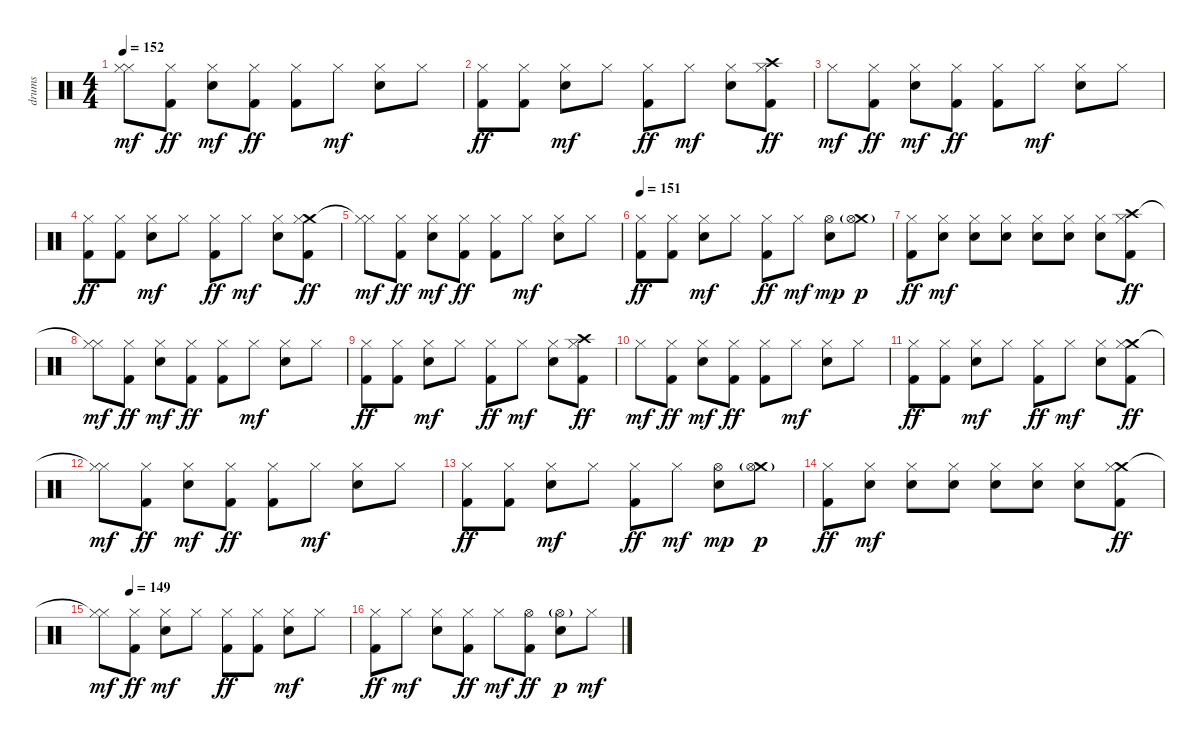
\track ("drums" "drums") {instrument percussion}
\staff {score}
\articulation defaults
\ts (4 4)
\tempo 152
\clef neutral
\ks c
("Hi-Hat (closed)"{t} "Hi-Hat (closed)").8{dy mf} ("Hi-Hat (closed)" "Kick (hit) 2").8{dy ff} ("Hi-Hat (closed)" "Electric Snare (hit)").8{dy mf} ("Hi-Hat (closed)" "Kick (hit) 2").8{dy ff} ("Hi-Hat (closed)" "Kick (hit) 2").8 "Hi-Hat (closed)".8{dy mf} ("Hi-Hat (closed)" "Electric Snare (hit)").8 "Hi-Hat (closed)".8 |
("Hi-Hat (closed)" "Kick (hit) 2").8{dy ff} ("Hi-Hat (closed)" "Kick (hit) 2").8 ("Hi-Hat (closed)" "Electric Snare (hit)").8{dy mf} "Hi-Hat (closed)".8 ("Hi-Hat (closed)" "Kick (hit) 2").8{dy ff} "Hi-Hat (closed)".8{dy mf} ("Hi-Hat (closed)" "Electric Snare (hit)").8 ("Crash high (hit)" "Hi-Hat (closed)" "Kick (hit) 2").8{dy ff} |
"Hi-Hat (closed)".8{dy mf} ("Hi-Hat (closed)" "Kick (hit) 2").8{dy ff} ("Hi-Hat (closed)" "Electric Snare (hit)").8{dy mf} ("Hi-Hat (closed)" "Kick (hit) 2").8{dy ff} ("Hi-Hat (closed)" "Kick (hit) 2").8 "Hi-Hat (closed)".8{dy mf} ("Hi-Hat (closed)" "Electric Snare (hit)").8 "Hi-Hat (closed)".8 |
("Hi-Hat (closed)" "Kick (hit) 2").8{dy ff} ("Hi-Hat (closed)" "Kick (hit) 2").8 ("Hi-Hat (closed)" "Electric Snare (hit)").8{dy mf} "Hi-Hat (closed)".8 ("Hi-Hat (closed)" "Kick (hit) 2").8{dy ff} "Hi-Hat (closed)".8{dy mf} ("Hi-Hat (closed)" "Electric Snare (hit)").8 ("Crash medium (hit)" "Hi-Hat (closed)" "Kick (hit) 2").8{dy ff} |
("Hi-Hat (closed)"{t} "Hi-Hat (closed)").8{dy mf} ("Hi-Hat (closed)" "Kick (hit) 2").8{dy ff} ("Hi-Hat (closed)" "Electric Snare (hit)").8{dy mf} ("Hi-Hat (closed)" "Kick (hit) 2").8{dy ff} ("Hi-Hat (closed)" "Kick (hit) 2").8 "Hi-Hat (closed)".8{dy mf} ("Hi-Hat (closed)" "Electric Snare (hit)").8 "Hi-Hat (closed)".8 |
\tempo 151
("Hi-Hat (closed)" "Kick (hit) 2").8{dy ff} ("Hi-Hat (closed)" "Kick (hit) 2").8 ("Hi-Hat (closed)" "Electric Snare (hit)").8{dy mf} "Hi-Hat (closed)".8 ("Hi-Hat (closed)" "Kick (hit) 2").8{dy ff} "Hi-Hat (closed)".8{dy mf} ("Hi-Hat (open)" "Electric Snare (hit)").8{dy mp} ("Crash medium (hit)" "Hi-Hat (open)"{g}).8{dy p} |
("Hi-Hat (closed)" "Kick (hit) 2").8{dy ff} ("Hi-Hat (closed)" "Electric Snare (hit)").8{dy mf} ("Hi-Hat (closed)" "Electric Snare (hit)").8 ("Hi-Hat (closed)" "Electric Snare (hit)").8 ("Hi-Hat (closed)" "Electric Snare (hit)").8 ("Hi-Hat (closed)" "Electric Snare (hit)").8 ("Hi-Hat (closed)" "Electric Snare (hit)").8 ("Crash high (hit)" "Hi-Hat (closed)" "Kick (hit) 2").8{dy ff} |
("Hi-Hat (closed)"{t} "Hi-Hat (closed)").8{dy mf} ("Hi-Hat (closed)" "Kick (hit) 2").8{dy ff} ("Hi-Hat (closed)" "Electric Snare (hit)").8{dy mf} ("Hi-Hat (closed)" "Kick (hit) 2").8{dy ff} ("Hi-Hat (closed)" "Kick (hit) 2").8 "Hi-Hat (closed)".8{dy mf} ("Hi-Hat (closed)" "Electric Snare (hit)").8 "Hi-Hat (closed)".8 |
("Hi-Hat (closed)" "Kick (hit) 2").8{dy ff} ("Hi-Hat (closed)" "Kick (hit) 2").8 ("Hi-Hat (closed)" "Electric Snare (hit)").8{dy mf} "Hi-Hat (closed)".8 ("Hi-Hat (closed)" "Kick (hit) 2").8{dy ff} "Hi-Hat (closed)".8{dy mf} ("Hi-Hat (closed)" "Electric Snare (hit)").8 ("Crash high (hit)" "Hi-Hat (closed)" "Kick (hit) 2").8{dy ff} |
"Hi-Hat (closed)".8{dy mf} ("Hi-Hat (closed)" "Kick (hit) 2").8{dy ff} ("Hi-Hat (closed)" "Electric Snare (hit)").8{dy mf} ("Hi-Hat (closed)" "Kick (hit) 2").8{dy ff} ("Hi-Hat (closed)" "Kick (hit) 2").8 "Hi-Hat (closed)".8{dy mf} ("Hi-Hat (closed)" "Electric Snare (hit)").8 "Hi-Hat (closed)".8 |
("Hi-Hat (closed)" "Kick (hit) 2").8{dy ff} ("Hi-Hat (closed)" "Kick (hit) 2").8 ("Hi-Hat (closed)" "Electric Snare (hit)").8{dy mf} "Hi-Hat (closed)".8 ("Hi-Hat (closed)" "Kick (hit) 2").8{dy ff} "Hi-Hat (closed)".8{dy mf} ("Hi-Hat (closed)" "Electric Snare (hit)").8 ("Crash medium (hit)" "Hi-Hat (closed)" "Kick (hit) 2").8{dy ff} |
("Hi-Hat (closed)"{t} "Hi-Hat (closed)").8{dy mf} ("Hi-Hat (closed)" "Kick (hit) 2").8{dy ff} ("Hi-Hat (closed)" "Electric Snare (hit)").8{dy mf} ("Hi-Hat (closed)" "Kick (hit) 2").8{dy ff} ("Hi-Hat (closed)" "Kick (hit) 2").8 "Hi-Hat (closed)".8{dy mf} ("Hi-Hat (closed)" "Electric Snare (hit)").8 "Hi-Hat (closed)".8 |
("Hi-Hat (closed)" "Kick (hit) 2").8{dy ff} ("Hi-Hat (closed)" "Kick (hit) 2").8 ("Hi-Hat (closed)" "Electric Snare (hit)").8{dy mf} "Hi-Hat (closed)".8 ("Hi-Hat (closed)" "Kick (hit) 2").8{dy ff} "Hi-Hat (closed)".8{dy mf} ("Hi-Hat (open)" "Electric Snare (hit)").8{dy mp} ("Crash medium (hit)" "Hi-Hat (open)"{g}).8{dy p} |
("Hi-Hat (closed)" "Kick (hit) 2").8{dy ff} ("Hi-Hat (closed)" "Electric Snare (hit)").8{dy mf} ("Hi-Hat (closed)" "Electric Snare (hit)").8 ("Hi-Hat (closed)" "Electric Snare (hit)").8 ("Hi-Hat (closed)" "Electric Snare (hit)").8 ("Hi-Hat (closed)" "Electric Snare (hit)").8 ("Hi-Hat (closed)" "Electric Snare (hit)").8 ("Crash medium (hit)" "Hi-Hat (closed)" "Kick (hit) 2").8{dy ff} |
\tempo (149 0.125)
("Hi-Hat (closed)"{t} "Hi-Hat (closed)").8{dy mf} ("Hi-Hat (closed)" "Kick (hit) 2").8{dy ff} ("Hi-Hat (closed)" "Electric Snare (hit)").8{dy mf} "Hi-Hat (closed)".8 ("Hi-Hat (closed)" "Kick (hit) 2").8{dy ff} ("Hi-Hat (closed)" "Kick (hit) 2").8 ("Hi-Hat (closed)" "Electric Snare (hit)").8{dy mf} "Hi-Hat (closed)".8 |
("Hi-Hat (closed)" "Kick (hit) 2").8{dy ff} "Hi-Hat (closed)".8{dy mf} ("Hi-Hat (closed)" "Electric Snare (hit)").8 ("Hi-Hat (closed)" "Kick (hit) 2").8{dy ff} "Hi-Hat (closed)".8{dy mf} ("Hi-Hat (open)" "Kick (hit) 2").8{dy ff} ("Hi-Hat (open)"{g} "Electric Snare (hit)").8{dy p} "Hi-Hat (closed)".8{dy mf}
